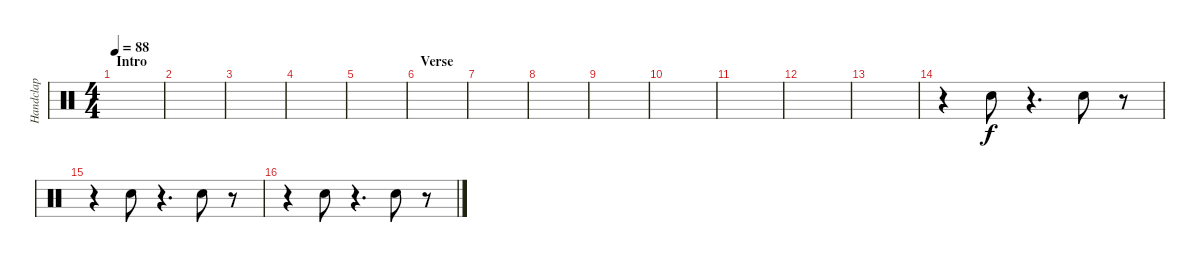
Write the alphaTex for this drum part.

\track ("Handclap" "Handclap") {instrument percussion}
\staff {score}
\articulation defaults
\ts (4 4)
\section ("" "Intro")
\tempo 88
\clef neutral
\ks c
|
|
|
|
|
\section ("" "Verse")
|
|
|
|
|
|
|
|
\section ("" "")
r.4 "Hand Clap (hit)".8 r.4{d} "Hand Clap (hit)".8 r.8 |
r.4 "Hand Clap (hit)".8 r.4{d} "Hand Clap (hit)".8 r.8 |
r.4 "Hand Clap (hit)".8 r.4{d} "Hand Clap (hit)".8 r.8
